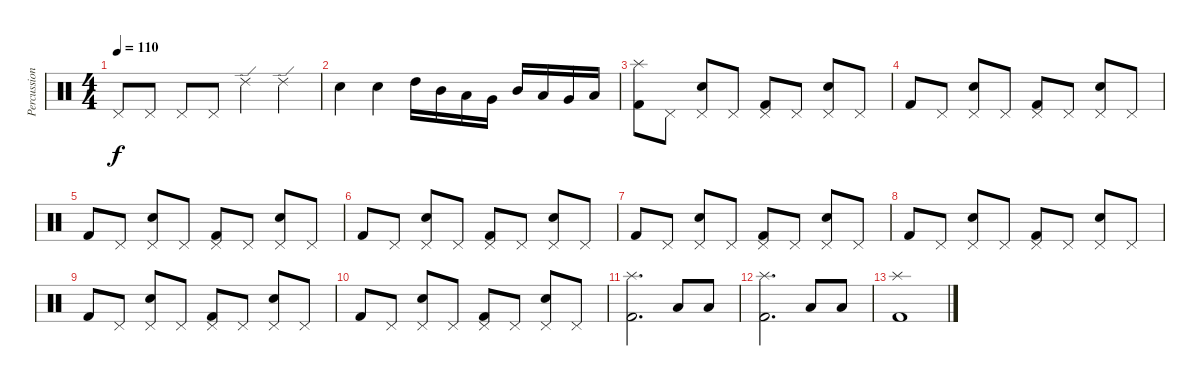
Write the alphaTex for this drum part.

\track ("Percussion" "Percussion") {instrument percussion}
\staff {score}
\articulation defaults
\ts (4 4)
\tempo 110
\clef neutral
\ks c "Pedal Hi-Hat (hit)".8{dy f} "Pedal Hi-Hat (hit)".8 "Pedal Hi-Hat (hit)".8 "Pedal Hi-Hat (hit)".8 "Ride (edge) 2".4 "Ride (edge) 2".4
|
"Snare (hit) 2".4 "Snare (hit) 2".4 "High Tom (hit)".16 "Mid Tom (hit)".16 "Low Tom (hit)".16 "Very Low Tom (hit)".16 "Mid Tom (hit)".16 "Low Tom (hit)".16 "Very Low Tom (hit)".16 "Low Floor Tom (hit)".16 |
("Splash (hit)" "Kick (hit) 2").8 "Pedal Hi-Hat (hit)".8 ("Pedal Hi-Hat (hit)" "Snare (hit) 2").8 "Pedal Hi-Hat (hit)".8 ("Pedal Hi-Hat (hit)" "Kick (hit) 2").8 "Pedal Hi-Hat (hit)".8 ("Pedal Hi-Hat (hit)" "Snare (hit) 2").8 "Pedal Hi-Hat (hit)".8 |
"Kick (hit) 2".8 "Pedal Hi-Hat (hit)".8 ("Pedal Hi-Hat (hit)" "Snare (hit) 2").8 "Pedal Hi-Hat (hit)".8 ("Pedal Hi-Hat (hit)" "Kick (hit) 2").8 "Pedal Hi-Hat (hit)".8 ("Pedal Hi-Hat (hit)" "Snare (hit) 2").8 "Pedal Hi-Hat (hit)".8 |
"Kick (hit) 2".8 "Pedal Hi-Hat (hit)".8 ("Pedal Hi-Hat (hit)" "Snare (hit) 2").8 "Pedal Hi-Hat (hit)".8 ("Pedal Hi-Hat (hit)" "Kick (hit) 2").8 "Pedal Hi-Hat (hit)".8 ("Pedal Hi-Hat (hit)" "Snare (hit) 2").8 "Pedal Hi-Hat (hit)".8 |
"Kick (hit) 2".8 "Pedal Hi-Hat (hit)".8 ("Pedal Hi-Hat (hit)" "Snare (hit) 2").8 "Pedal Hi-Hat (hit)".8 ("Pedal Hi-Hat (hit)" "Kick (hit) 2").8 "Pedal Hi-Hat (hit)".8 ("Pedal Hi-Hat (hit)" "Snare (hit) 2").8 "Pedal Hi-Hat (hit)".8 |
"Kick (hit) 2".8 "Pedal Hi-Hat (hit)".8 ("Pedal Hi-Hat (hit)" "Snare (hit) 2").8 "Pedal Hi-Hat (hit)".8 ("Pedal Hi-Hat (hit)" "Kick (hit) 2").8 "Pedal Hi-Hat (hit)".8 ("Pedal Hi-Hat (hit)" "Snare (hit) 2").8 "Pedal Hi-Hat (hit)".8 |
"Kick (hit) 2".8 "Pedal Hi-Hat (hit)".8 ("Pedal Hi-Hat (hit)" "Snare (hit) 2").8 "Pedal Hi-Hat (hit)".8 ("Pedal Hi-Hat (hit)" "Kick (hit) 2").8 "Pedal Hi-Hat (hit)".8 ("Pedal Hi-Hat (hit)" "Snare (hit) 2").8 "Pedal Hi-Hat (hit)".8 |
"Kick (hit) 2".8 "Pedal Hi-Hat (hit)".8 ("Pedal Hi-Hat (hit)" "Snare (hit) 2").8 "Pedal Hi-Hat (hit)".8 ("Pedal Hi-Hat (hit)" "Kick (hit) 2").8 "Pedal Hi-Hat (hit)".8 ("Pedal Hi-Hat (hit)" "Snare (hit) 2").8 "Pedal Hi-Hat (hit)".8 |
"Kick (hit) 2".8 "Pedal Hi-Hat (hit)".8 ("Pedal Hi-Hat (hit)" "Snare (hit) 2").8 "Pedal Hi-Hat (hit)".8 ("Pedal Hi-Hat (hit)" "Kick (hit) 2").8 "Pedal Hi-Hat (hit)".8 ("Pedal Hi-Hat (hit)" "Snare (hit) 2").8 "Pedal Hi-Hat (hit)".8 |
("Splash (hit)" "Kick (hit) 2").2{d} "Low Tom (hit)".8 "Low Tom (hit)".8 |
("Splash (hit)" "Kick (hit) 2").2{d} "Low Tom (hit)".8 "Low Tom (hit)".8 |
("Splash (hit)" "Kick (hit) 2").1
